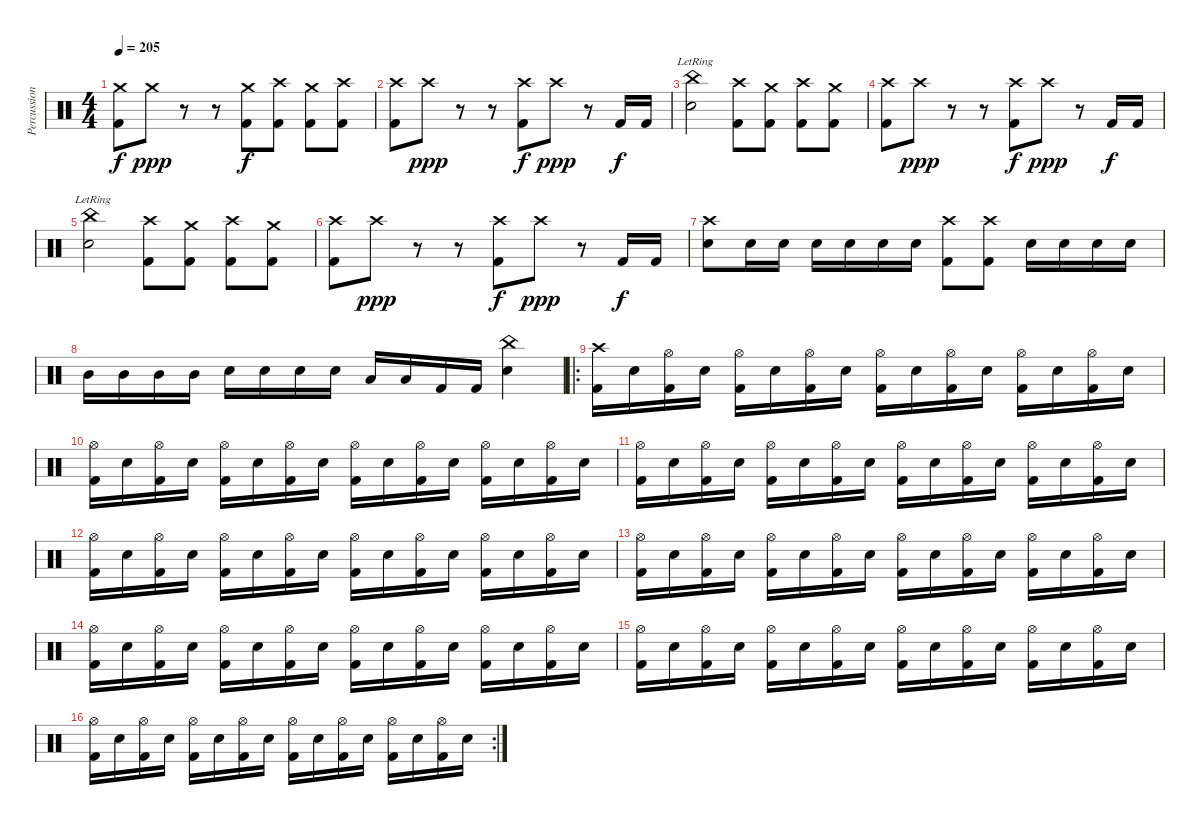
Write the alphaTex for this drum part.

\track ("Percussion" "Percussion") {instrument percussion}
\staff {score}
\articulation defaults
\ts (4 4)
\tempo 205
\clef neutral
\ks c
("Crash medium (hit)" "Kick (hit) 2").8{dy f} "Crash medium (hit)".8{dy ppp} r.8 r.8 ("Crash medium (hit)" "Kick (hit) 2").8{dy f} ("Crash high (hit)" "Kick (hit) 2").8 ("Crash medium (hit)" "Kick (hit) 2").8 ("Crash high (hit)" "Kick (hit) 2").8 |
("Crash high (hit)" "Kick (hit) 2").8 "Crash high (hit)".8{dy ppp} r.8 r.8 ("Crash high (hit)" "Kick (hit) 2").8{dy f} "Crash high (hit)".8{dy ppp} r.8 "Kick (hit) 2".16{dy f} "Kick (hit) 2".16 |
("China (hit)"{lr} "Electric Snare (hit)").2 ("Crash high (hit)" "Kick (hit) 2").8 ("Crash medium (hit)" "Kick (hit) 2").8 ("Crash high (hit)" "Kick (hit) 2").8 ("Crash medium (hit)" "Kick (hit) 2").8 |
("Crash high (hit)" "Kick (hit) 2").8 "Crash high (hit)".8{dy ppp} r.8 r.8 ("Crash high (hit)" "Kick (hit) 2").8{dy f} "Crash high (hit)".8{dy ppp} r.8 "Kick (hit) 2".16{dy f} "Kick (hit) 2".16 |
("China (hit)"{lr} "Electric Snare (hit)").2 ("Crash high (hit)" "Kick (hit) 2").8 ("Crash medium (hit)" "Kick (hit) 2").8 ("Crash high (hit)" "Kick (hit) 2").8 ("Crash medium (hit)" "Kick (hit) 2").8 |
("Crash high (hit)" "Kick (hit) 2").8 "Crash high (hit)".8{dy ppp} r.8 r.8 ("Crash high (hit)" "Kick (hit) 2").8{dy f} "Crash high (hit)".8{dy ppp} r.8 "Kick (hit) 2".16{dy f} "Kick (hit) 2".16 |
("Crash high (hit)" "Electric Snare (hit)").8 "Electric Snare (hit)".16 "Electric Snare (hit)".16 "Electric Snare (hit)".16 "Electric Snare (hit)".16 "Electric Snare (hit)".16 "Electric Snare (hit)".16 ("Crash high (hit)" "Kick (hit) 2").8 ("Crash high (hit)" "Kick (hit) 2").8 "Electric Snare (hit)".16 "Electric Snare (hit)".16 "Electric Snare (hit)".16 "Electric Snare (hit)".16 |
"Mid Tom (hit)".16 "Mid Tom (hit)".16 "Mid Tom (hit)".16 "Mid Tom (hit)".16 "Electric Snare (hit)".16 "Electric Snare (hit)".16 "Electric Snare (hit)".16 "Electric Snare (hit)".16 "Low Tom (hit)".16 "Low Tom (hit)".16 "Kick (hit) 2".16 "Kick (hit) 2".16 ("China (hit)" "Electric Snare (hit)").4 |
\ro
("Crash high (hit)" "Kick (hit) 2").16 "Electric Snare (hit)".16 ("Hi-Hat (open)" "Kick (hit) 2").16 "Electric Snare (hit)".16 ("Hi-Hat (open)" "Kick (hit) 2").16 "Electric Snare (hit)".16 ("Hi-Hat (open)" "Kick (hit) 2").16 "Electric Snare (hit)".16 ("Hi-Hat (open)" "Kick (hit) 2").16 "Electric Snare (hit)".16 ("Hi-Hat (open)" "Kick (hit) 2").16 "Electric Snare (hit)".16 ("Hi-Hat (open)" "Kick (hit) 2").16 "Electric Snare (hit)".16 ("Hi-Hat (open)" "Kick (hit) 2").16 "Electric Snare (hit)".16 |
("Hi-Hat (open)" "Kick (hit) 2").16 "Electric Snare (hit)".16 ("Hi-Hat (open)" "Kick (hit) 2").16 "Electric Snare (hit)".16 ("Hi-Hat (open)" "Kick (hit) 2").16 "Electric Snare (hit)".16 ("Hi-Hat (open)" "Kick (hit) 2").16 "Electric Snare (hit)".16 ("Hi-Hat (open)" "Kick (hit) 2").16 "Electric Snare (hit)".16 ("Hi-Hat (open)" "Kick (hit) 2").16 "Electric Snare (hit)".16 ("Hi-Hat (open)" "Kick (hit) 2").16 "Electric Snare (hit)".16 ("Hi-Hat (open)" "Kick (hit) 2").16 "Electric Snare (hit)".16 |
("Hi-Hat (open)" "Kick (hit) 2").16 "Electric Snare (hit)".16 ("Hi-Hat (open)" "Kick (hit) 2").16 "Electric Snare (hit)".16 ("Hi-Hat (open)" "Kick (hit) 2").16 "Electric Snare (hit)".16 ("Hi-Hat (open)" "Kick (hit) 2").16 "Electric Snare (hit)".16 ("Hi-Hat (open)" "Kick (hit) 2").16 "Electric Snare (hit)".16 ("Hi-Hat (open)" "Kick (hit) 2").16 "Electric Snare (hit)".16 ("Hi-Hat (open)" "Kick (hit) 2").16 "Electric Snare (hit)".16 ("Hi-Hat (open)" "Kick (hit) 2").16 "Electric Snare (hit)".16 |
("Hi-Hat (open)" "Kick (hit) 2").16 "Electric Snare (hit)".16 ("Hi-Hat (open)" "Kick (hit) 2").16 "Electric Snare (hit)".16 ("Hi-Hat (open)" "Kick (hit) 2").16 "Electric Snare (hit)".16 ("Hi-Hat (open)" "Kick (hit) 2").16 "Electric Snare (hit)".16 ("Hi-Hat (open)" "Kick (hit) 2").16 "Electric Snare (hit)".16 ("Hi-Hat (open)" "Kick (hit) 2").16 "Electric Snare (hit)".16 ("Hi-Hat (open)" "Kick (hit) 2").16 "Electric Snare (hit)".16 ("Hi-Hat (open)" "Kick (hit) 2").16 "Electric Snare (hit)".16 |
("Hi-Hat (open)" "Kick (hit) 2").16 "Electric Snare (hit)".16 ("Hi-Hat (open)" "Kick (hit) 2").16 "Electric Snare (hit)".16 ("Hi-Hat (open)" "Kick (hit) 2").16 "Electric Snare (hit)".16 ("Hi-Hat (open)" "Kick (hit) 2").16 "Electric Snare (hit)".16 ("Hi-Hat (open)" "Kick (hit) 2").16 "Electric Snare (hit)".16 ("Hi-Hat (open)" "Kick (hit) 2").16 "Electric Snare (hit)".16 ("Hi-Hat (open)" "Kick (hit) 2").16 "Electric Snare (hit)".16 ("Hi-Hat (open)" "Kick (hit) 2").16 "Electric Snare (hit)".16 |
("Hi-Hat (open)" "Kick (hit) 2").16 "Electric Snare (hit)".16 ("Hi-Hat (open)" "Kick (hit) 2").16 "Electric Snare (hit)".16 ("Hi-Hat (open)" "Kick (hit) 2").16 "Electric Snare (hit)".16 ("Hi-Hat (open)" "Kick (hit) 2").16 "Electric Snare (hit)".16 ("Hi-Hat (open)" "Kick (hit) 2").16 "Electric Snare (hit)".16 ("Hi-Hat (open)" "Kick (hit) 2").16 "Electric Snare (hit)".16 ("Hi-Hat (open)" "Kick (hit) 2").16 "Electric Snare (hit)".16 ("Hi-Hat (open)" "Kick (hit) 2").16 "Electric Snare (hit)".16 |
("Hi-Hat (open)" "Kick (hit) 2").16 "Electric Snare (hit)".16 ("Hi-Hat (open)" "Kick (hit) 2").16 "Electric Snare (hit)".16 ("Hi-Hat (open)" "Kick (hit) 2").16 "Electric Snare (hit)".16 ("Hi-Hat (open)" "Kick (hit) 2").16 "Electric Snare (hit)".16 ("Hi-Hat (open)" "Kick (hit) 2").16 "Electric Snare (hit)".16 ("Hi-Hat (open)" "Kick (hit) 2").16 "Electric Snare (hit)".16 ("Hi-Hat (open)" "Kick (hit) 2").16 "Electric Snare (hit)".16 ("Hi-Hat (open)" "Kick (hit) 2").16 "Electric Snare (hit)".16 |
\rc 2
("Hi-Hat (open)" "Kick (hit) 2").16 "Electric Snare (hit)".16 ("Hi-Hat (open)" "Kick (hit) 2").16 "Electric Snare (hit)".16 ("Hi-Hat (open)" "Kick (hit) 2").16 "Electric Snare (hit)".16 ("Hi-Hat (open)" "Kick (hit) 2").16 "Electric Snare (hit)".16 ("Hi-Hat (open)" "Kick (hit) 2").16 "Electric Snare (hit)".16 ("Hi-Hat (open)" "Kick (hit) 2").16 "Electric Snare (hit)".16 ("Hi-Hat (open)" "Kick (hit) 2").16 "Electric Snare (hit)".16 ("Hi-Hat (open)" "Kick (hit) 2").16 "Electric Snare (hit)".16
